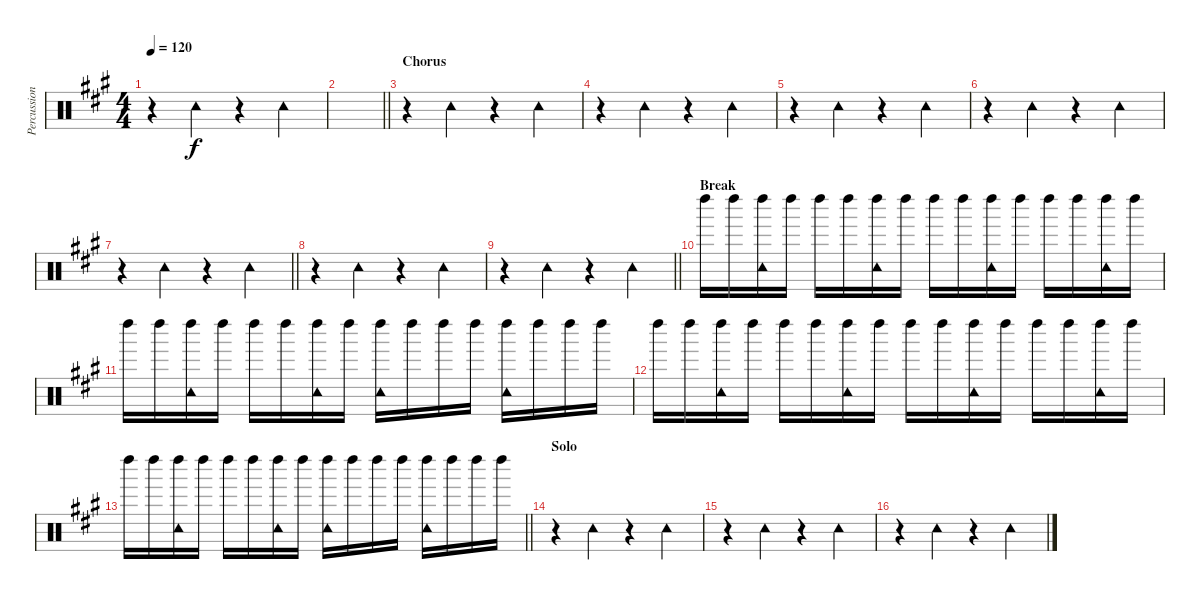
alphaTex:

\track ("Percussion" "Percussion") {instrument percussion}
\staff {score}
\articulation defaults
\ts (4 4)
\tempo 120
\clef neutral
\ks a
r.4{dy f} "Tambourine (hit)".4 r.4 "Tambourine (hit)".4 |
\barLineRight lightlight
|
\section ("" "Chorus")
r.4 "Tambourine (hit)".4 r.4 "Tambourine (hit)".4 |
r.4 "Tambourine (hit)".4 r.4 "Tambourine (hit)".4 |
r.4 "Tambourine (hit)".4 r.4 "Tambourine (hit)".4 |
r.4 "Tambourine (hit)".4 r.4 "Tambourine (hit)".4 |
\barLineRight lightlight
r.4 "Tambourine (hit)".4 r.4 "Tambourine (hit)".4 |
r.4 "Tambourine (hit)".4 r.4 "Tambourine (hit)".4 |
\barLineRight lightlight
r.4 "Tambourine (hit)".4 r.4 "Tambourine (hit)".4 |
\section ("" "Break")
"Left Maraca (hit)".16 "Left Maraca (hit)".16 ("Tambourine (hit)" "Left Maraca (hit)").16 "Left Maraca (hit)".16 "Left Maraca (hit)".16 "Left Maraca (hit)".16 ("Tambourine (hit)" "Left Maraca (hit)").16 "Left Maraca (hit)".16 "Left Maraca (hit)".16 "Left Maraca (hit)".16 ("Tambourine (hit)" "Left Maraca (hit)").16 "Left Maraca (hit)".16 "Left Maraca (hit)".16 "Left Maraca (hit)".16 ("Tambourine (hit)" "Left Maraca (hit)").16 "Left Maraca (hit)".16 |
"Left Maraca (hit)".16 "Left Maraca (hit)".16 ("Tambourine (hit)" "Left Maraca (hit)").16 "Left Maraca (hit)".16 "Left Maraca (hit)".16 "Left Maraca (hit)".16 ("Tambourine (hit)" "Left Maraca (hit)").16 "Left Maraca (hit)".16 ("Tambourine (hit)" "Left Maraca (hit)").16 "Left Maraca (hit)".16 "Left Maraca (hit)".16 "Left Maraca (hit)".16 ("Tambourine (hit)" "Left Maraca (hit)").16 "Left Maraca (hit)".16 "Left Maraca (hit)".16 "Left Maraca (hit)".16 |
"Left Maraca (hit)".16 "Left Maraca (hit)".16 ("Tambourine (hit)" "Left Maraca (hit)").16 "Left Maraca (hit)".16 "Left Maraca (hit)".16 "Left Maraca (hit)".16 ("Tambourine (hit)" "Left Maraca (hit)").16 "Left Maraca (hit)".16 "Left Maraca (hit)".16 "Left Maraca (hit)".16 ("Tambourine (hit)" "Left Maraca (hit)").16 "Left Maraca (hit)".16 "Left Maraca (hit)".16 "Left Maraca (hit)".16 ("Tambourine (hit)" "Left Maraca (hit)").16 "Left Maraca (hit)".16 |
\barLineRight lightlight "Left Maraca (hit)".16 "Left Maraca (hit)".16
("Tambourine (hit)" "Left Maraca (hit)").16 "Left Maraca (hit)".16 "Left Maraca (hit)".16 "Left Maraca (hit)".16 ("Tambourine (hit)" "Left Maraca (hit)").16 "Left Maraca (hit)".16 ("Tambourine (hit)" "Left Maraca (hit)").16 "Left Maraca (hit)".16 "Left Maraca (hit)".16 "Left Maraca (hit)".16 ("Tambourine (hit)" "Left Maraca (hit)").16 "Left Maraca (hit)".16 "Left Maraca (hit)".16 "Left Maraca (hit)".16 |
\section ("" "Solo")
r.4 "Tambourine (hit)".4 r.4 "Tambourine (hit)".4 |
r.4 "Tambourine (hit)".4 r.4 "Tambourine (hit)".4 |
r.4 "Tambourine (hit)".4 r.4 "Tambourine (hit)".4
